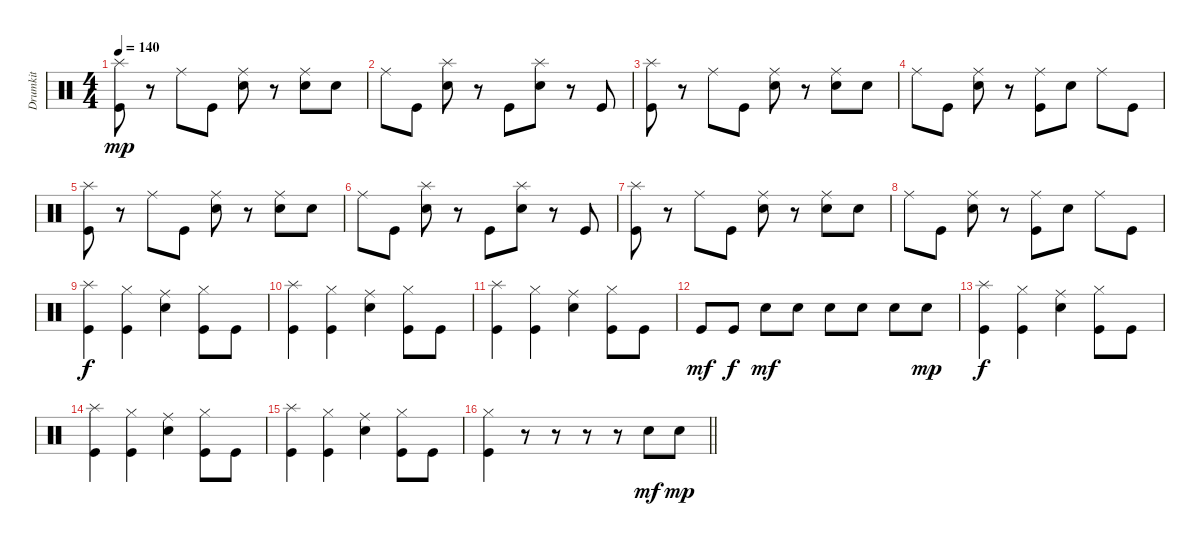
\track ("Drumkit" "Drumkit") {instrument percussion}
\staff {score}
\articulation defaults
\ts (4 4)
\tempo 140
\clef neutral
\ks c
("Kick (hit)" "Splash (hit)").8{dy mp} r.8 "Ride (middle)".8 "Kick (hit)".8 ("Snare (hit) 2" "Ride (middle)").8 r.8 ("Snare (hit) 2" "Ride (middle)").8 "Snare (hit) 2".8 |
"Ride (middle)".8 "Kick (hit)".8 ("Snare (hit) 2" "Splash (hit)").8 r.8 "Kick (hit)".8 ("Snare (hit) 2" "Splash (hit)").8 r.8 "Kick (hit)".8 |
("Kick (hit)" "Splash (hit)").8 r.8 "Ride (middle)".8 "Kick (hit)".8 ("Snare (hit) 2" "Ride (middle)").8 r.8 ("Snare (hit) 2" "Ride (middle)").8 "Snare (hit) 2".8 |
"Ride (middle)".8 "Kick (hit)".8 ("Snare (hit) 2" "Ride (middle)").8 r.8 ("Kick (hit)" "Ride (middle)").8 "Snare (hit) 2".8 "Ride (middle)".8 "Kick (hit)".8 |
("Kick (hit)" "Splash (hit)").8 r.8 "Ride (middle)".8 "Kick (hit)".8 ("Snare (hit) 2" "Ride (middle)").8 r.8 ("Snare (hit) 2" "Ride (middle)").8 "Snare (hit) 2".8 |
"Ride (middle)".8 "Kick (hit)".8 ("Snare (hit) 2" "Splash (hit)").8 r.8 "Kick (hit)".8 ("Snare (hit) 2" "Splash (hit)").8 r.8 "Kick (hit)".8 |
("Kick (hit)" "Splash (hit)").8 r.8 "Ride (middle)".8 "Kick (hit)".8 ("Snare (hit) 2" "Ride (middle)").8 r.8 ("Snare (hit) 2" "Ride (middle)").8 "Snare (hit) 2".8 |
"Ride (middle)".8 "Kick (hit)".8 ("Snare (hit) 2" "Ride (middle)").8 r.8 ("Kick (hit)" "Ride (middle)").8 "Snare (hit) 2".8 "Ride (middle)".8 "Kick (hit)".8 |
("Kick (hit)" "Splash (hit)").4{dy f} ("Kick (hit)" "Hi-Hat (closed)").4 ("Snare (hit) 2" "Ride (middle)").4 ("Kick (hit)" "Hi-Hat (closed)").8 "Kick (hit)".8 |
("Kick (hit)" "Splash (hit)").4 ("Kick (hit)" "Hi-Hat (closed)").4 ("Snare (hit) 2" "Ride (middle)").4 ("Kick (hit)" "Hi-Hat (closed)").8 "Kick (hit)".8 |
("Kick (hit)" "Splash (hit)").4 ("Kick (hit)" "Hi-Hat (closed)").4 ("Snare (hit) 2" "Ride (middle)").4 ("Kick (hit)" "Hi-Hat (closed)").8 "Kick (hit)".8 |
"Kick (hit)".8{dy mf} "Kick (hit)".8{dy f} "Snare (hit) 2".8{dy mf} "Snare (hit) 2".8 "Snare (hit) 2".8 "Snare (hit) 2".8 "Snare (hit) 2".8 "Snare (hit) 2".8{dy mp} |
("Kick (hit)" "Splash (hit)").4{dy f} ("Kick (hit)" "Hi-Hat (closed)").4 ("Snare (hit) 2" "Ride (middle)").4 ("Kick (hit)" "Hi-Hat (closed)").8 "Kick (hit)".8 |
("Kick (hit)" "Splash (hit)").4 ("Kick (hit)" "Hi-Hat (closed)").4 ("Snare (hit) 2" "Ride (middle)").4 ("Kick (hit)" "Hi-Hat (closed)").8 "Kick (hit)".8 |
("Kick (hit)" "Splash (hit)").4 ("Kick (hit)" "Hi-Hat (closed)").4 ("Snare (hit) 2" "Ride (middle)").4 ("Kick (hit)" "Hi-Hat (closed)").8 "Kick (hit)".8 |
\barLineRight lightlight
("Kick (hit)" "Hi-Hat (closed)").4 r.8 r.8 r.8 r.8 "Snare (hit) 2".8{dy mf} "Snare (hit) 2".8{dy mp}
